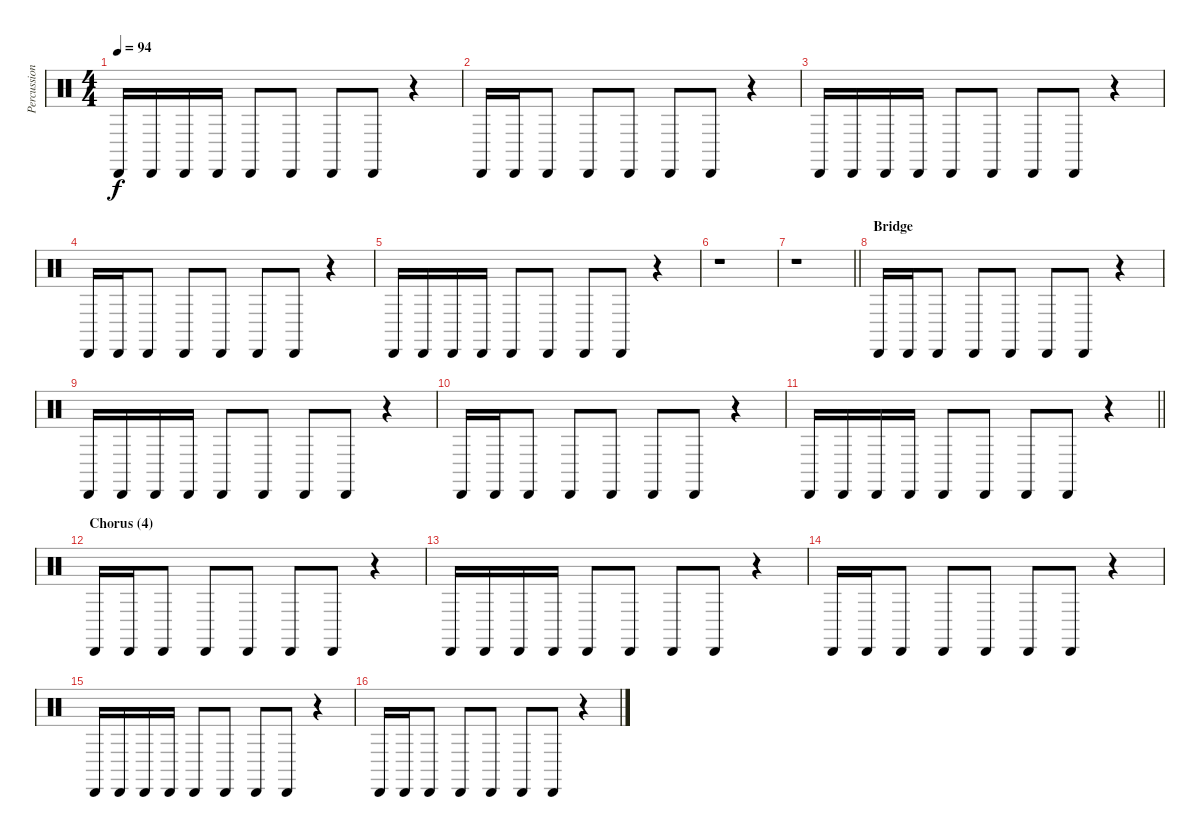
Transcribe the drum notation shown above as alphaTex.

\track ("Percussion" "Percussion") {instrument percussion}
\staff {score}
\articulation defaults
\ts (4 4)
\tempo 94
\clef neutral
\ks aminor "Cabasa (hit)".16{dy f} "Cabasa (hit)".16 "Cabasa (hit)".16 "Cabasa (hit)".16 "Cabasa (hit)".8 "Cabasa (hit)".8 "Cabasa (hit)".8 "Cabasa (hit)".8
r.4 |
"Cabasa (hit)".16 "Cabasa (hit)".16 "Cabasa (hit)".8 "Cabasa (hit)".8 "Cabasa (hit)".8 "Cabasa (hit)".8 "Cabasa (hit)".8 r.4 |
"Cabasa (hit)".16 "Cabasa (hit)".16 "Cabasa (hit)".16 "Cabasa (hit)".16 "Cabasa (hit)".8 "Cabasa (hit)".8 "Cabasa (hit)".8 "Cabasa (hit)".8 r.4 |
"Cabasa (hit)".16 "Cabasa (hit)".16 "Cabasa (hit)".8 "Cabasa (hit)".8 "Cabasa (hit)".8 "Cabasa (hit)".8 "Cabasa (hit)".8 r.4 |
"Cabasa (hit)".16 "Cabasa (hit)".16 "Cabasa (hit)".16 "Cabasa (hit)".16 "Cabasa (hit)".8 "Cabasa (hit)".8 "Cabasa (hit)".8 "Cabasa (hit)".8 r.4 |
r.1 |
\barLineRight lightlight
r.1 |
\section ("" "Bridge")
"Cabasa (hit)".16 "Cabasa (hit)".16 "Cabasa (hit)".8 "Cabasa (hit)".8 "Cabasa (hit)".8 "Cabasa (hit)".8 "Cabasa (hit)".8 r.4 |
"Cabasa (hit)".16 "Cabasa (hit)".16 "Cabasa (hit)".16 "Cabasa (hit)".16 "Cabasa (hit)".8 "Cabasa (hit)".8 "Cabasa (hit)".8 "Cabasa (hit)".8 r.4 |
"Cabasa (hit)".16 "Cabasa (hit)".16 "Cabasa (hit)".8 "Cabasa (hit)".8 "Cabasa (hit)".8 "Cabasa (hit)".8 "Cabasa (hit)".8 r.4 |
\barLineRight lightlight "Cabasa (hit)".16 "Cabasa (hit)".16 "Cabasa (hit)".16 "Cabasa (hit)".16 "Cabasa (hit)".8 "Cabasa (hit)".8 "Cabasa (hit)".8 "Cabasa (hit)".8
r.4 |
\section ("" "Chorus (4)")
"Cabasa (hit)".16 "Cabasa (hit)".16 "Cabasa (hit)".8 "Cabasa (hit)".8 "Cabasa (hit)".8 "Cabasa (hit)".8 "Cabasa (hit)".8 r.4 |
"Cabasa (hit)".16 "Cabasa (hit)".16 "Cabasa (hit)".16 "Cabasa (hit)".16 "Cabasa (hit)".8 "Cabasa (hit)".8 "Cabasa (hit)".8 "Cabasa (hit)".8 r.4 |
"Cabasa (hit)".16 "Cabasa (hit)".16 "Cabasa (hit)".8 "Cabasa (hit)".8 "Cabasa (hit)".8 "Cabasa (hit)".8 "Cabasa (hit)".8 r.4 |
"Cabasa (hit)".16 "Cabasa (hit)".16 "Cabasa (hit)".16 "Cabasa (hit)".16 "Cabasa (hit)".8 "Cabasa (hit)".8 "Cabasa (hit)".8 "Cabasa (hit)".8 r.4 |
"Cabasa (hit)".16 "Cabasa (hit)".16 "Cabasa (hit)".8 "Cabasa (hit)".8 "Cabasa (hit)".8 "Cabasa (hit)".8 "Cabasa (hit)".8 r.4
